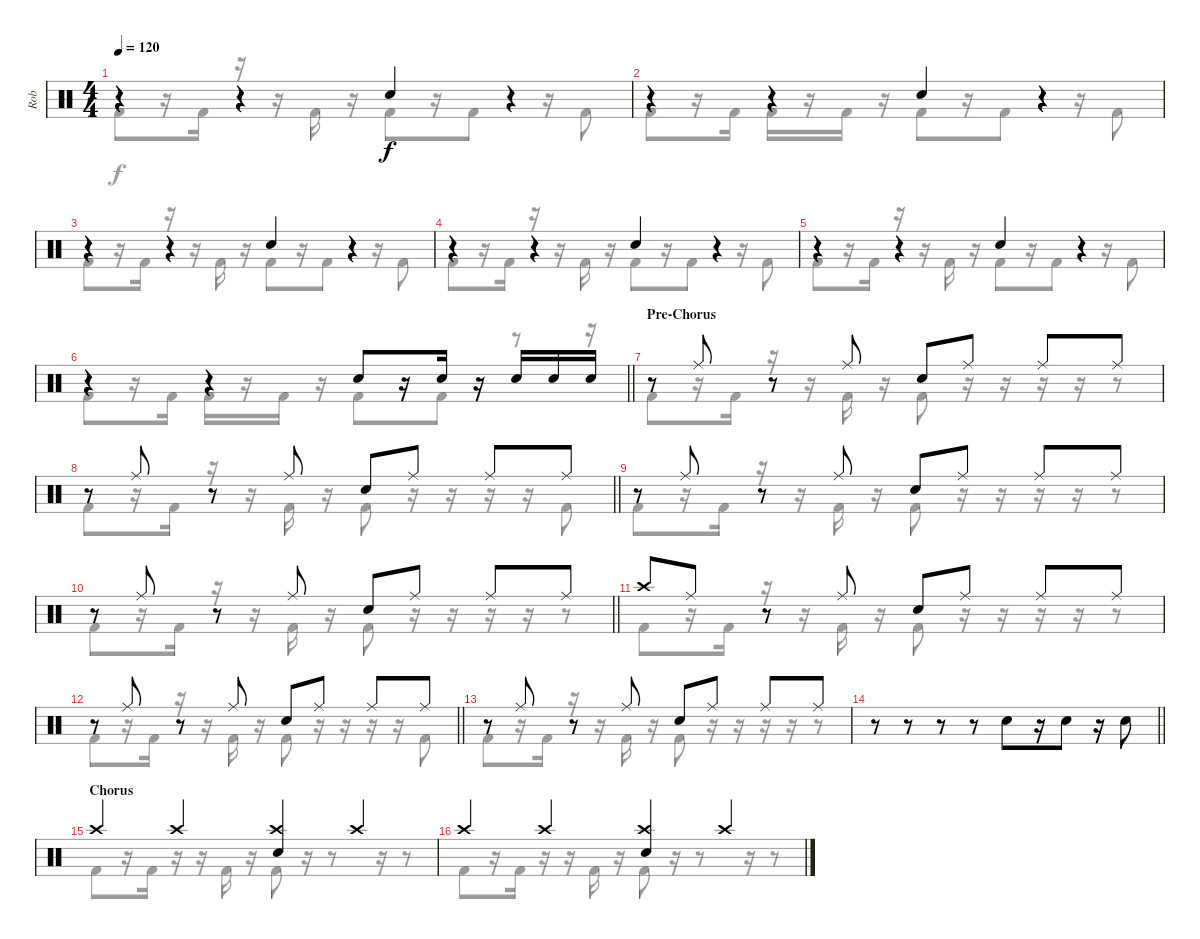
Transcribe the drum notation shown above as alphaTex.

\track ("Rob" "Rob") {instrument percussion}
\staff {score}
\articulation defaults
\voice
\ts (4 4)
\tempo 120
\clef neutral
\ks c
r.4{dy f} r.4 "Snare (hit) 2".4 r.4 |
r.4 r.4 "Snare (hit) 2".4 r.4 |
r.4 r.4 "Snare (hit) 2".4 r.4 |
r.4 r.4 "Snare (hit) 2".4 r.4 |
r.4 r.4 "Snare (hit) 2".4 r.4 |
\barLineRight lightlight
r.4 r.4 "Snare (hit) 2".8 r.16 "Snare (hit) 2".16 r.16 "Snare (hit) 2".16 "Snare (hit) 2".16 "Snare (hit) 2".16 |
\section ("" "Pre-Chorus")
r.8 "Ride (middle)".8 r.8 "Ride (middle)".8 "Snare (hit) 2".8 "Ride (middle)".8 "Ride (middle)".8 "Ride (middle)".8 |
\barLineRight lightlight
r.8 "Ride (middle)".8 r.8 "Ride (middle)".8 "Snare (hit) 2".8 "Ride (middle)".8 "Ride (middle)".8 "Ride (middle)".8 |
r.8 "Ride (middle)".8 r.8 "Ride (middle)".8 "Snare (hit) 2".8 "Ride (middle)".8 "Ride (middle)".8 "Ride (middle)".8 |
\barLineRight lightlight
r.8 "Ride (middle)".8 r.8 "Ride (middle)".8 "Snare (hit) 2".8 "Ride (middle)".8 "Ride (middle)".8 "Ride (middle)".8 |
"Crash high (hit)".8 "Ride (middle)".8 r.8 "Ride (middle)".8 "Snare (hit) 2".8 "Ride (middle)".8 "Ride (middle)".8 "Ride (middle)".8 |
\barLineRight lightlight
r.8 "Ride (middle)".8 r.8 "Ride (middle)".8 "Snare (hit) 2".8 "Ride (middle)".8 "Ride (middle)".8 "Ride (middle)".8 |
r.8 "Ride (middle)".8 r.8 "Ride (middle)".8 "Snare (hit) 2".8 "Ride (middle)".8 "Ride (middle)".8 "Ride (middle)".8 |
\barLineRight lightlight
r.8 r.8 r.8 r.8 "Snare (hit) 2".8 r.16 "Snare (hit) 2".8 r.16 "Snare (hit) 2".8 |
\section ("" "Chorus")
"Crash high (hit)".4 "Crash high (hit)".4 ("Crash high (hit)" "Snare (hit) 2").4 "Crash high (hit)".4 |
"Crash high (hit)".4 "Crash high (hit)".4 ("Crash high (hit)" "Snare (hit) 2").4 "Crash high (hit)".4
\voice
\clef neutral
\ottava regular
\simile none
\ks c "Kick (hit) 2".8{dy f}
r.16 "Kick (hit) 2".16 r.16 r.16 "Kick (hit) 2".16 r.16 "Kick (hit) 2".8 r.16 "Kick (hit) 2".8 r.16 "Kick (hit) 2".8 |
"Kick (hit) 2".8 r.16 "Kick (hit) 2".16 "Kick (hit) 2".16 r.16 "Kick (hit) 2".16 r.16 "Kick (hit) 2".8 r.16 "Kick (hit) 2".8 r.16 "Kick (hit) 2".8 |
"Kick (hit) 2".8 r.16 "Kick (hit) 2".16 r.16 r.16 "Kick (hit) 2".16 r.16 "Kick (hit) 2".8 r.16 "Kick (hit) 2".8 r.16 "Kick (hit) 2".8 |
"Kick (hit) 2".8 r.16 "Kick (hit) 2".16 r.16 r.16 "Kick (hit) 2".16 r.16 "Kick (hit) 2".8 r.16 "Kick (hit) 2".8 r.16 "Kick (hit) 2".8 |
"Kick (hit) 2".8 r.16 "Kick (hit) 2".16 r.16 r.16 "Kick (hit) 2".16 r.16 "Kick (hit) 2".8 r.16 "Kick (hit) 2".8 r.16 "Kick (hit) 2".8 |
\barLineRight lightlight "Kick (hit) 2".8
r.16 "Kick (hit) 2".16 "Kick (hit) 2".16 r.16 "Kick (hit) 2".16 r.16 "Kick (hit) 2".8 r.16 "Kick (hit) 2".8 r.8 r.16 |
"Kick (hit) 2".8 r.16 "Kick (hit) 2".16 r.16 r.16 "Kick (hit) 2".16 r.16 "Kick (hit) 2".8 r.16 r.16 r.16 r.16 r.8 |
\barLineRight lightlight "Kick (hit) 2".8
r.16 "Kick (hit) 2".16 r.16 r.16 "Kick (hit) 2".16 r.16 "Kick (hit) 2".8 r.16 r.16 r.16 r.16 "Kick (hit) 2".8 |
"Kick (hit) 2".8 r.16 "Kick (hit) 2".16 r.16 r.16 "Kick (hit) 2".16 r.16 "Kick (hit) 2".8 r.16 r.16 r.16 r.16 r.8 |
\barLineRight lightlight "Kick (hit) 2".8
r.16 "Kick (hit) 2".16 r.16 r.16 "Kick (hit) 2".16 r.16 "Kick (hit) 2".8 r.16 r.16 r.16 r.16 r.8 |
"Kick (hit) 2".8 r.16 "Kick (hit) 2".16 r.16 r.16 "Kick (hit) 2".16 r.16 "Kick (hit) 2".8 r.16 r.16 r.16 r.16 r.8 |
\barLineRight lightlight "Kick (hit) 2".8
r.16 "Kick (hit) 2".16 r.16 r.16 "Kick (hit) 2".16 r.16 "Kick (hit) 2".8 r.16 r.16 r.16 r.16 "Kick (hit) 2".8 |
"Kick (hit) 2".8 r.16 "Kick (hit) 2".16 r.16 r.16 "Kick (hit) 2".16 r.16 "Kick (hit) 2".8 r.16 r.16 r.16 r.16 r.8 |
\barLineRight lightlight
|
"Kick (hit) 2".8 r.16 "Kick (hit) 2".16 r.16 r.16 "Kick (hit) 2".16 r.16 "Kick (hit) 2".8 r.16 r.8 r.16 r.8 |
"Kick (hit) 2".8 r.16 "Kick (hit) 2".16 r.16 r.16 "Kick (hit) 2".16 r.16 "Kick (hit) 2".8 r.16 r.8 r.16 r.8
